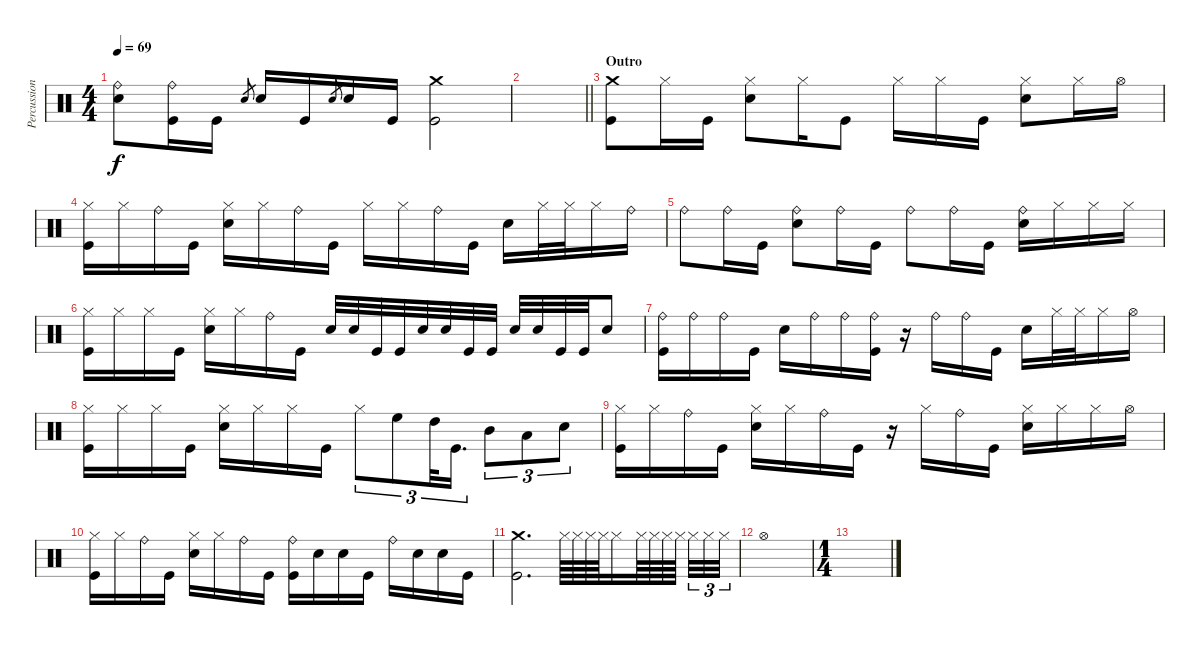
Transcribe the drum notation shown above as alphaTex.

\track ("Percussion" "Percussion") {instrument percussion}
\staff {score}
\articulation defaults
\ts (4 4)
\tempo 69
\clef neutral
\ks c
("Ride (bell)" "Electric Snare (hit)").8{dy f} ("Ride (bell)" "Kick (hit)").16 "Kick (hit)".16 "Electric Snare (hit)".8{gr} "Electric Snare (hit)".16 "Kick (hit)".16 "Electric Snare (hit)".8{gr} "Electric Snare (hit)".16 "Kick (hit)".16 ("Crash medium (hit)" "Kick (hit)").2 |
\barLineRight lightlight
|
\section ("" "Outro")
("Crash medium (hit)" "Kick (hit)").8 "Hi-Hat (closed)".16 "Kick (hit)".16 ("Hi-Hat (closed)" "Electric Snare (hit)").8 "Hi-Hat (closed)".16 "Kick (hit)".8 "Hi-Hat (closed)".16 "Hi-Hat (closed)".16 "Kick (hit)".16 ("Hi-Hat (closed)" "Electric Snare (hit)").8 "Hi-Hat (closed)".16 "Hi-Hat (open)".16 |
("Hi-Hat (closed)" "Kick (hit)").16 "Hi-Hat (closed)".16 "Ride (bell)".16 "Kick (hit)".16 ("Hi-Hat (closed)" "Electric Snare (hit)").16 "Hi-Hat (closed)".16 "Ride (bell)".16 "Kick (hit)".16 "Hi-Hat (closed)".16 "Hi-Hat (closed)".16 "Ride (bell)".16 "Kick (hit)".16 "Electric Snare (hit)".16 "Hi-Hat (closed)".32 "Hi-Hat (closed)".32 "Hi-Hat (closed)".16 "Ride (bell)".16 |
"Ride (bell)".8 "Ride (bell)".16 "Kick (hit)".16 ("Ride (bell)" "Electric Snare (hit)").8 "Ride (bell)".16 "Kick (hit)".16 "Ride (bell)".8 "Ride (bell)".16 "Kick (hit)".16 ("Ride (bell)" "Electric Snare (hit)").16 "Hi-Hat (closed)".16 "Hi-Hat (closed)".16 "Hi-Hat (closed)".16 |
("Hi-Hat (closed)" "Kick (hit)").16 "Hi-Hat (closed)".16 "Hi-Hat (closed)".16 "Kick (hit)".16 ("Hi-Hat (closed)" "Electric Snare (hit)").16 "Hi-Hat (closed)".16 "Ride (bell)".16 "Kick (hit)".16 "Electric Snare (hit)".32 "Electric Snare (hit)".32 "Kick (hit)".32 "Kick (hit)".32 "Electric Snare (hit)".32 "Electric Snare (hit)".32 "Kick (hit)".32 "Kick (hit)".32 "Electric Snare (hit)".32 "Electric Snare (hit)".32 "Kick (hit)".32 "Kick (hit)".32 "Electric Snare (hit)".8 |
("Ride (bell)" "Kick (hit)").16 "Ride (bell)".16 "Ride (bell)".16 "Kick (hit)".16 "Electric Snare (hit)".16 "Ride (bell)".16 "Ride (bell)".16 ("Ride (bell)" "Kick (hit)").16 r.16 "Ride (bell)".16 "Ride (bell)".16 "Kick (hit)".16 "Electric Snare (hit)".16 "Hi-Hat (closed)".32 "Hi-Hat (closed)".32 "Hi-Hat (closed)".16 "Hi-Hat (open)".16 |
("Hi-Hat (closed)" "Kick (hit)").16 "Hi-Hat (closed)".16 "Hi-Hat (closed)".16 "Kick (hit)".16 ("Hi-Hat (closed)" "Electric Snare (hit)").16 "Hi-Hat (closed)".16 "Hi-Hat (closed)".16 "Kick (hit)".16 "Hi-Hat (closed)".8{tu (3 2)} "High Floor Tom (hit)".8{tu (3 2)} "High Tom (hit)".32{tu (3 2)} "Kick (hit)".16{d tu (3 2)} "Mid Tom (hit)".8{tu (3 2)} "Low Tom (hit)".8{tu (3 2)} "Electric Snare (hit)".8{tu (3 2)} |
("Hi-Hat (closed)" "Kick (hit)").16 "Hi-Hat (closed)".16 "Ride (bell)".16 "Kick (hit)".16 ("Hi-Hat (closed)" "Electric Snare (hit)").16 "Hi-Hat (closed)".16 "Ride (bell)".16 "Kick (hit)".16 r.16 "Hi-Hat (closed)".16 "Ride (bell)".16 "Kick (hit)".16 ("Hi-Hat (closed)" "Electric Snare (hit)").16 "Hi-Hat (closed)".16 "Hi-Hat (closed)".16 "Hi-Hat (open)".16 |
("Hi-Hat (closed)" "Kick (hit)").16 "Hi-Hat (closed)".16 "Ride (bell)".16 "Kick (hit)".16 ("Hi-Hat (closed)" "Electric Snare (hit)").16 "Hi-Hat (closed)".16 "Ride (bell)".16 "Kick (hit)".16 ("Ride (bell)" "Kick (hit)").16 "Electric Snare (hit)".16 "Electric Snare (hit)".16 "Kick (hit)".16 "Ride (bell)".16 "Electric Snare (hit)".16 "Electric Snare (hit)".16 "Kick (hit)".16 |
("Crash medium (hit)" "Kick (hit)").2{d} "Hi-Hat (closed)".64 "Hi-Hat (closed)".64 "Hi-Hat (closed)".64 "Hi-Hat (closed)".64 "Hi-Hat (closed)".16 "Hi-Hat (closed)".64 "Hi-Hat (closed)".64 "Hi-Hat (closed)".64 "Hi-Hat (closed)".64{beam splitsecondary} "Hi-Hat (closed)".32{tu (3 2)} "Hi-Hat (closed)".32{tu (3 2)} "Hi-Hat (closed)".32{tu (3 2)} |
"Hi-Hat (open)".1 |
\ts (1 4)
